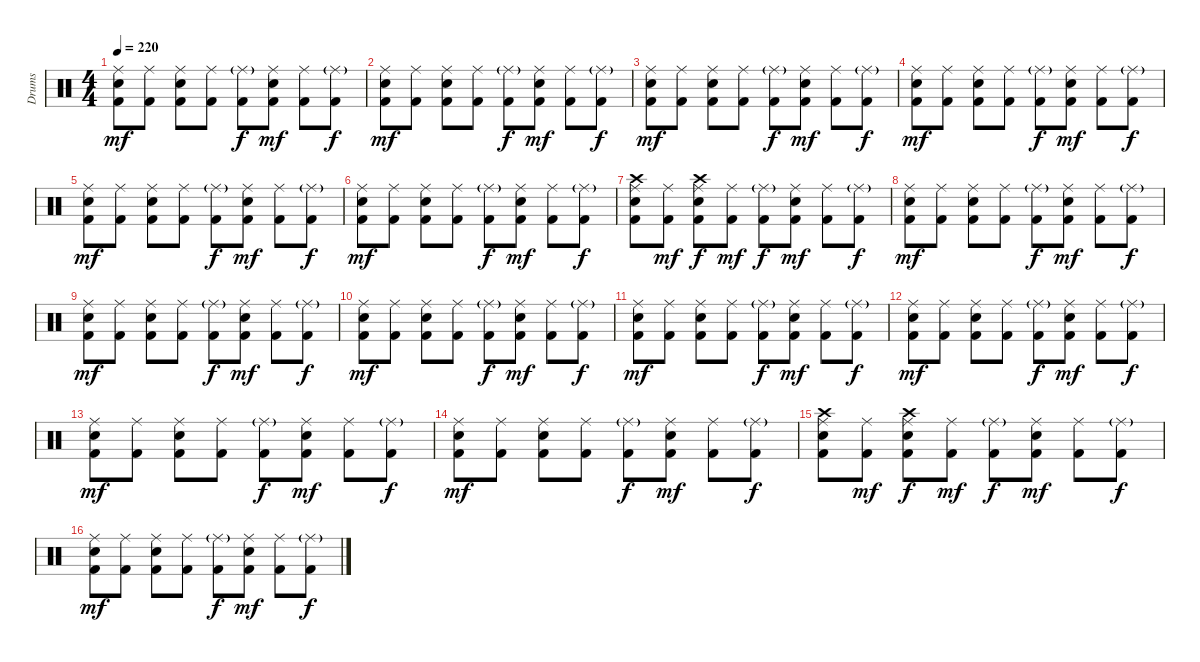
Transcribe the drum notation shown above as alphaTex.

\bracketExtendMode groupsimilarinstruments
\otherSystemsTrackNameOrientation horizontal
\track ("Drumkit" "Drums") {instrument percussion}
\staff {score}
\articulation defaults
\ts (4 4)
\tempo 220
\clef neutral
\ks c
("Ride (middle)" "Snare (hit) 2" "Kick (hit) 2").8{dy mf beam Down} ("Ride (middle)" "Kick (hit) 2").8{beam Down} ("Ride (middle)" "Snare (hit) 2" "Kick (hit) 2").8{beam Down} ("Ride (middle)" "Kick (hit) 2").8{beam Down} ("Ride (middle)"{g} "Kick (hit) 2").8{dy f beam Down} ("Ride (middle)" "Snare (hit) 2" "Kick (hit) 2").8{dy mf beam Down} ("Ride (middle)" "Kick (hit) 2").8{beam Down} ("Ride (middle)"{g} "Kick (hit) 2").8{dy f beam Down} |
("Ride (middle)" "Snare (hit) 2" "Kick (hit) 2").8{dy mf beam Down} ("Ride (middle)" "Kick (hit) 2").8{beam Down} ("Ride (middle)" "Snare (hit) 2" "Kick (hit) 2").8{beam Down} ("Ride (middle)" "Kick (hit) 2").8{beam Down} ("Ride (middle)"{g} "Kick (hit) 2").8{dy f beam Down} ("Ride (middle)" "Snare (hit) 2" "Kick (hit) 2").8{dy mf beam Down} ("Ride (middle)" "Kick (hit) 2").8{beam Down} ("Ride (middle)"{g} "Kick (hit) 2").8{dy f beam Down} |
("Ride (middle)" "Snare (hit) 2" "Kick (hit) 2").8{dy mf beam Down} ("Ride (middle)" "Kick (hit) 2").8{beam Down} ("Ride (middle)" "Snare (hit) 2" "Kick (hit) 2").8{beam Down} ("Ride (middle)" "Kick (hit) 2").8{beam Down} ("Ride (middle)"{g} "Kick (hit) 2").8{dy f beam Down} ("Ride (middle)" "Snare (hit) 2" "Kick (hit) 2").8{dy mf beam Down} ("Ride (middle)" "Kick (hit) 2").8{beam Down} ("Ride (middle)"{g} "Kick (hit) 2").8{dy f beam Down} |
("Ride (middle)" "Snare (hit) 2" "Kick (hit) 2").8{dy mf beam Down} ("Ride (middle)" "Kick (hit) 2").8{beam Down} ("Ride (middle)" "Snare (hit) 2" "Kick (hit) 2").8{beam Down} ("Ride (middle)" "Kick (hit) 2").8{beam Down} ("Ride (middle)"{g} "Kick (hit) 2").8{dy f beam Down} ("Ride (middle)" "Snare (hit) 2" "Kick (hit) 2").8{dy mf beam Down} ("Ride (middle)" "Kick (hit) 2").8{beam Down} ("Ride (middle)"{g} "Kick (hit) 2").8{dy f beam Down} |
("Ride (middle)" "Snare (hit) 2" "Kick (hit) 2").8{dy mf beam Down} ("Ride (middle)" "Kick (hit) 2").8{beam Down} ("Ride (middle)" "Snare (hit) 2" "Kick (hit) 2").8{beam Down} ("Ride (middle)" "Kick (hit) 2").8{beam Down} ("Ride (middle)"{g} "Kick (hit) 2").8{dy f beam Down} ("Ride (middle)" "Snare (hit) 2" "Kick (hit) 2").8{dy mf beam Down} ("Ride (middle)" "Kick (hit) 2").8{beam Down} ("Ride (middle)"{g} "Kick (hit) 2").8{dy f beam Down} |
("Ride (middle)" "Snare (hit) 2" "Kick (hit) 2").8{dy mf beam Down} ("Ride (middle)" "Kick (hit) 2").8{beam Down} ("Ride (middle)" "Snare (hit) 2" "Kick (hit) 2").8{beam Down} ("Ride (middle)" "Kick (hit) 2").8{beam Down} ("Ride (middle)"{g} "Kick (hit) 2").8{dy f beam Down} ("Ride (middle)" "Snare (hit) 2" "Kick (hit) 2").8{dy mf beam Down} ("Ride (middle)" "Kick (hit) 2").8{beam Down} ("Ride (middle)"{g} "Kick (hit) 2").8{dy f beam Down} |
("Crash high (hit)" "Ride (middle)" "Snare (hit) 2" "Kick (hit) 2").8{beam Down} ("Ride (middle)" "Kick (hit) 2").8{dy mf beam Down} ("Crash high (hit)" "Ride (middle)" "Snare (hit) 2" "Kick (hit) 2").8{dy f beam Down} ("Ride (middle)" "Kick (hit) 2").8{dy mf beam Down} ("Ride (middle)"{g} "Kick (hit) 2").8{dy f beam Down} ("Ride (middle)" "Snare (hit) 2" "Kick (hit) 2").8{dy mf beam Down} ("Ride (middle)" "Kick (hit) 2").8{beam Down} ("Ride (middle)"{g} "Kick (hit) 2").8{dy f beam Down} |
("Ride (middle)" "Snare (hit) 2" "Kick (hit) 2").8{dy mf beam Down} ("Ride (middle)" "Kick (hit) 2").8{beam Down} ("Ride (middle)" "Snare (hit) 2" "Kick (hit) 2").8{beam Down} ("Ride (middle)" "Kick (hit) 2").8{beam Down} ("Ride (middle)"{g} "Kick (hit) 2").8{dy f beam Down} ("Ride (middle)" "Snare (hit) 2" "Kick (hit) 2").8{dy mf beam Down} ("Ride (middle)" "Kick (hit) 2").8{beam Down} ("Ride (middle)"{g} "Kick (hit) 2").8{dy f beam Down} |
("Ride (middle)" "Snare (hit) 2" "Kick (hit) 2").8{dy mf beam Down} ("Ride (middle)" "Kick (hit) 2").8{beam Down} ("Ride (middle)" "Snare (hit) 2" "Kick (hit) 2").8{beam Down} ("Ride (middle)" "Kick (hit) 2").8{beam Down} ("Ride (middle)"{g} "Kick (hit) 2").8{dy f beam Down} ("Ride (middle)" "Snare (hit) 2" "Kick (hit) 2").8{dy mf beam Down} ("Ride (middle)" "Kick (hit) 2").8{beam Down} ("Ride (middle)"{g} "Kick (hit) 2").8{dy f beam Down} |
("Ride (middle)" "Snare (hit) 2" "Kick (hit) 2").8{dy mf beam Down} ("Ride (middle)" "Kick (hit) 2").8{beam Down} ("Ride (middle)" "Snare (hit) 2" "Kick (hit) 2").8{beam Down} ("Ride (middle)" "Kick (hit) 2").8{beam Down} ("Ride (middle)"{g} "Kick (hit) 2").8{dy f beam Down} ("Ride (middle)" "Snare (hit) 2" "Kick (hit) 2").8{dy mf beam Down} ("Ride (middle)" "Kick (hit) 2").8{beam Down} ("Ride (middle)"{g} "Kick (hit) 2").8{dy f beam Down} |
("Ride (middle)" "Snare (hit) 2" "Kick (hit) 2").8{dy mf beam Down} ("Ride (middle)" "Kick (hit) 2").8{beam Down} ("Ride (middle)" "Snare (hit) 2" "Kick (hit) 2").8{beam Down} ("Ride (middle)" "Kick (hit) 2").8{beam Down} ("Ride (middle)"{g} "Kick (hit) 2").8{dy f beam Down} ("Ride (middle)" "Snare (hit) 2" "Kick (hit) 2").8{dy mf beam Down} ("Ride (middle)" "Kick (hit) 2").8{beam Down} ("Ride (middle)"{g} "Kick (hit) 2").8{dy f beam Down} |
("Ride (middle)" "Snare (hit) 2" "Kick (hit) 2").8{dy mf beam Down} ("Ride (middle)" "Kick (hit) 2").8{beam Down} ("Ride (middle)" "Snare (hit) 2" "Kick (hit) 2").8{beam Down} ("Ride (middle)" "Kick (hit) 2").8{beam Down} ("Ride (middle)"{g} "Kick (hit) 2").8{dy f beam Down} ("Ride (middle)" "Snare (hit) 2" "Kick (hit) 2").8{dy mf beam Down} ("Ride (middle)" "Kick (hit) 2").8{beam Down} ("Ride (middle)"{g} "Kick (hit) 2").8{dy f beam Down} |
("Ride (middle)" "Snare (hit) 2" "Kick (hit) 2").8{dy mf beam Down} ("Ride (middle)" "Kick (hit) 2").8{beam Down} ("Ride (middle)" "Snare (hit) 2" "Kick (hit) 2").8{beam Down} ("Ride (middle)" "Kick (hit) 2").8{beam Down} ("Ride (middle)"{g} "Kick (hit) 2").8{dy f beam Down} ("Ride (middle)" "Snare (hit) 2" "Kick (hit) 2").8{dy mf beam Down} ("Ride (middle)" "Kick (hit) 2").8{beam Down} ("Ride (middle)"{g} "Kick (hit) 2").8{dy f beam Down} |
("Ride (middle)" "Snare (hit) 2" "Kick (hit) 2").8{dy mf beam Down} ("Ride (middle)" "Kick (hit) 2").8{beam Down} ("Ride (middle)" "Snare (hit) 2" "Kick (hit) 2").8{beam Down} ("Ride (middle)" "Kick (hit) 2").8{beam Down} ("Ride (middle)"{g} "Kick (hit) 2").8{dy f beam Down} ("Ride (middle)" "Snare (hit) 2" "Kick (hit) 2").8{dy mf beam Down} ("Ride (middle)" "Kick (hit) 2").8{beam Down} ("Ride (middle)"{g} "Kick (hit) 2").8{dy f beam Down} |
("Crash high (hit)" "Ride (middle)" "Snare (hit) 2" "Kick (hit) 2").8{beam Down} ("Ride (middle)" "Kick (hit) 2").8{dy mf beam Down} ("Crash high (hit)" "Ride (middle)" "Snare (hit) 2" "Kick (hit) 2").8{dy f beam Down} ("Ride (middle)" "Kick (hit) 2").8{dy mf beam Down} ("Ride (middle)"{g} "Kick (hit) 2").8{dy f beam Down} ("Ride (middle)" "Snare (hit) 2" "Kick (hit) 2").8{dy mf beam Down} ("Ride (middle)" "Kick (hit) 2").8{beam Down} ("Ride (middle)"{g} "Kick (hit) 2").8{dy f beam Down} |
("Ride (middle)" "Snare (hit) 2" "Kick (hit) 2").8{dy mf beam Down} ("Ride (middle)" "Kick (hit) 2").8{beam Down} ("Ride (middle)" "Snare (hit) 2" "Kick (hit) 2").8{beam Down} ("Ride (middle)" "Kick (hit) 2").8{beam Down} ("Ride (middle)"{g} "Kick (hit) 2").8{dy f beam Down} ("Ride (middle)" "Snare (hit) 2" "Kick (hit) 2").8{dy mf beam Down} ("Ride (middle)" "Kick (hit) 2").8{beam Down} ("Ride (middle)"{g} "Kick (hit) 2").8{dy f beam Down}
